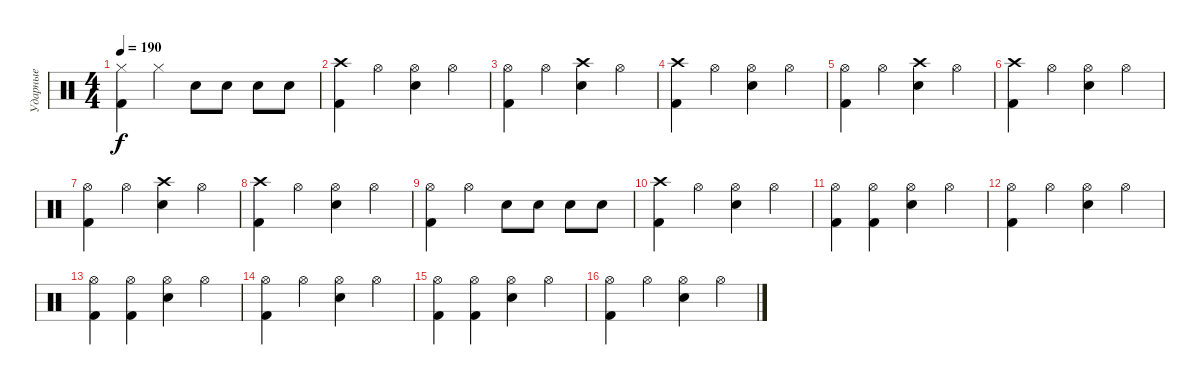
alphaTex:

\track ("Ударные" "Ударные") {instrument percussion}
\staff {score}
\articulation defaults
\ts (4 4)
\tempo 190
\clef neutral
\ks c
("Hi-Hat (closed)" "Kick (hit) 2").4{dy f} "Hi-Hat (closed)".4 "Electric Snare (hit)".8 "Electric Snare (hit)".8 "Electric Snare (hit)".8 "Electric Snare (hit)".8 |
("Crash high (hit)" "Kick (hit) 2").4 "Hi-Hat (open)".4 ("Hi-Hat (open)" "Electric Snare (hit)").4 "Hi-Hat (open)".4 |
("Hi-Hat (open)" "Kick (hit) 2").4 "Hi-Hat (open)".4 ("Crash high (hit)" "Electric Snare (hit)").4 "Hi-Hat (open)".4 |
("Crash high (hit)" "Kick (hit) 2").4 "Hi-Hat (open)".4 ("Hi-Hat (open)" "Electric Snare (hit)").4 "Hi-Hat (open)".4 |
("Hi-Hat (open)" "Kick (hit) 2").4 "Hi-Hat (open)".4 ("Crash high (hit)" "Electric Snare (hit)").4 "Hi-Hat (open)".4 |
("Crash high (hit)" "Kick (hit) 2").4 "Hi-Hat (open)".4 ("Hi-Hat (open)" "Electric Snare (hit)").4 "Hi-Hat (open)".4 |
("Hi-Hat (open)" "Kick (hit) 2").4 "Hi-Hat (open)".4 ("Crash high (hit)" "Electric Snare (hit)").4 "Hi-Hat (open)".4 |
("Crash high (hit)" "Kick (hit) 2").4 "Hi-Hat (open)".4 ("Hi-Hat (open)" "Electric Snare (hit)").4 "Hi-Hat (open)".4 |
("Hi-Hat (open)" "Kick (hit) 2").4 "Hi-Hat (open)".4 "Electric Snare (hit)".8 "Electric Snare (hit)".8 "Electric Snare (hit)".8 "Electric Snare (hit)".8 |
("Crash high (hit)" "Kick (hit) 2").4 "Hi-Hat (open)".4 ("Hi-Hat (open)" "Electric Snare (hit)").4 "Hi-Hat (open)".4 |
("Hi-Hat (open)" "Kick (hit) 2").4 ("Hi-Hat (open)" "Kick (hit) 2").4 ("Hi-Hat (open)" "Electric Snare (hit)").4 "Hi-Hat (open)".4 |
("Hi-Hat (open)" "Kick (hit) 2").4 "Hi-Hat (open)".4 ("Hi-Hat (open)" "Electric Snare (hit)").4 "Hi-Hat (open)".4 |
("Hi-Hat (open)" "Kick (hit) 2").4 ("Hi-Hat (open)" "Kick (hit) 2").4 ("Hi-Hat (open)" "Electric Snare (hit)").4 "Hi-Hat (open)".4 |
("Hi-Hat (open)" "Kick (hit) 2").4 "Hi-Hat (open)".4 ("Hi-Hat (open)" "Electric Snare (hit)").4 "Hi-Hat (open)".4 |
("Hi-Hat (open)" "Kick (hit) 2").4 ("Hi-Hat (open)" "Kick (hit) 2").4 ("Hi-Hat (open)" "Electric Snare (hit)").4 "Hi-Hat (open)".4 |
("Hi-Hat (open)" "Kick (hit) 2").4 "Hi-Hat (open)".4 ("Hi-Hat (open)" "Electric Snare (hit)").4 "Hi-Hat (open)".4
